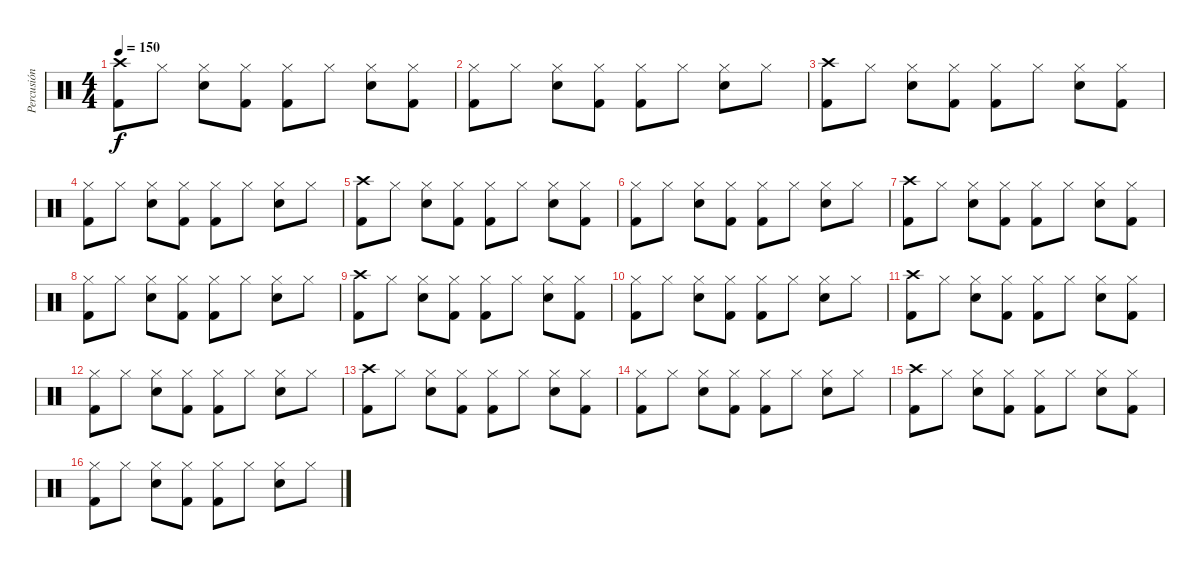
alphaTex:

\track ("Percusión" "Percusión") {instrument percussion}
\staff {score}
\articulation defaults
\ts (4 4)
\tempo 150
\clef neutral
\ks c
("Kick (hit) 2" "Crash high (hit)").8{dy f} "Hi-Hat (closed)".8 ("Hi-Hat (closed)" "Electric Snare (hit)").8 ("Kick (hit) 2" "Hi-Hat (closed)").8 ("Kick (hit) 2" "Hi-Hat (closed)").8 "Hi-Hat (closed)".8 ("Hi-Hat (closed)" "Electric Snare (hit)").8 ("Kick (hit) 2" "Hi-Hat (closed)").8 |
("Kick (hit) 2" "Hi-Hat (closed)").8 "Hi-Hat (closed)".8 ("Hi-Hat (closed)" "Electric Snare (hit)").8 ("Kick (hit) 2" "Hi-Hat (closed)").8 ("Kick (hit) 2" "Hi-Hat (closed)").8 "Hi-Hat (closed)".8 ("Hi-Hat (closed)" "Electric Snare (hit)").8 "Hi-Hat (closed)".8 |
("Kick (hit) 2" "Crash high (hit)").8 "Hi-Hat (closed)".8 ("Hi-Hat (closed)" "Electric Snare (hit)").8 ("Kick (hit) 2" "Hi-Hat (closed)").8 ("Kick (hit) 2" "Hi-Hat (closed)").8 "Hi-Hat (closed)".8 ("Hi-Hat (closed)" "Electric Snare (hit)").8 ("Kick (hit) 2" "Hi-Hat (closed)").8 |
("Kick (hit) 2" "Hi-Hat (closed)").8 "Hi-Hat (closed)".8 ("Hi-Hat (closed)" "Electric Snare (hit)").8 ("Kick (hit) 2" "Hi-Hat (closed)").8 ("Kick (hit) 2" "Hi-Hat (closed)").8 "Hi-Hat (closed)".8 ("Hi-Hat (closed)" "Electric Snare (hit)").8 "Hi-Hat (closed)".8 |
("Kick (hit) 2" "Crash high (hit)").8 "Hi-Hat (closed)".8 ("Hi-Hat (closed)" "Electric Snare (hit)").8 ("Kick (hit) 2" "Hi-Hat (closed)").8 ("Kick (hit) 2" "Hi-Hat (closed)").8 "Hi-Hat (closed)".8 ("Hi-Hat (closed)" "Electric Snare (hit)").8 ("Kick (hit) 2" "Hi-Hat (closed)").8 |
("Kick (hit) 2" "Hi-Hat (closed)").8 "Hi-Hat (closed)".8 ("Hi-Hat (closed)" "Electric Snare (hit)").8 ("Kick (hit) 2" "Hi-Hat (closed)").8 ("Kick (hit) 2" "Hi-Hat (closed)").8 "Hi-Hat (closed)".8 ("Hi-Hat (closed)" "Electric Snare (hit)").8 "Hi-Hat (closed)".8 |
("Kick (hit) 2" "Crash high (hit)").8 "Hi-Hat (closed)".8 ("Hi-Hat (closed)" "Electric Snare (hit)").8 ("Kick (hit) 2" "Hi-Hat (closed)").8 ("Kick (hit) 2" "Hi-Hat (closed)").8 "Hi-Hat (closed)".8 ("Hi-Hat (closed)" "Electric Snare (hit)").8 ("Kick (hit) 2" "Hi-Hat (closed)").8 |
("Kick (hit) 2" "Hi-Hat (closed)").8 "Hi-Hat (closed)".8 ("Hi-Hat (closed)" "Electric Snare (hit)").8 ("Kick (hit) 2" "Hi-Hat (closed)").8 ("Kick (hit) 2" "Hi-Hat (closed)").8 "Hi-Hat (closed)".8 ("Hi-Hat (closed)" "Electric Snare (hit)").8 "Hi-Hat (closed)".8 |
("Kick (hit) 2" "Crash high (hit)").8 "Hi-Hat (closed)".8 ("Hi-Hat (closed)" "Electric Snare (hit)").8 ("Kick (hit) 2" "Hi-Hat (closed)").8 ("Kick (hit) 2" "Hi-Hat (closed)").8 "Hi-Hat (closed)".8 ("Hi-Hat (closed)" "Electric Snare (hit)").8 ("Kick (hit) 2" "Hi-Hat (closed)").8 |
("Kick (hit) 2" "Hi-Hat (closed)").8 "Hi-Hat (closed)".8 ("Hi-Hat (closed)" "Electric Snare (hit)").8 ("Kick (hit) 2" "Hi-Hat (closed)").8 ("Kick (hit) 2" "Hi-Hat (closed)").8 "Hi-Hat (closed)".8 ("Hi-Hat (closed)" "Electric Snare (hit)").8 "Hi-Hat (closed)".8 |
("Kick (hit) 2" "Crash high (hit)").8 "Hi-Hat (closed)".8 ("Hi-Hat (closed)" "Electric Snare (hit)").8 ("Kick (hit) 2" "Hi-Hat (closed)").8 ("Kick (hit) 2" "Hi-Hat (closed)").8 "Hi-Hat (closed)".8 ("Hi-Hat (closed)" "Electric Snare (hit)").8 ("Kick (hit) 2" "Hi-Hat (closed)").8 |
("Kick (hit) 2" "Hi-Hat (closed)").8 "Hi-Hat (closed)".8 ("Hi-Hat (closed)" "Electric Snare (hit)").8 ("Kick (hit) 2" "Hi-Hat (closed)").8 ("Kick (hit) 2" "Hi-Hat (closed)").8 "Hi-Hat (closed)".8 ("Hi-Hat (closed)" "Electric Snare (hit)").8 "Hi-Hat (closed)".8 |
("Kick (hit) 2" "Crash high (hit)").8 "Hi-Hat (closed)".8 ("Hi-Hat (closed)" "Electric Snare (hit)").8 ("Kick (hit) 2" "Hi-Hat (closed)").8 ("Kick (hit) 2" "Hi-Hat (closed)").8 "Hi-Hat (closed)".8 ("Hi-Hat (closed)" "Electric Snare (hit)").8 ("Kick (hit) 2" "Hi-Hat (closed)").8 |
("Kick (hit) 2" "Hi-Hat (closed)").8 "Hi-Hat (closed)".8 ("Hi-Hat (closed)" "Electric Snare (hit)").8 ("Kick (hit) 2" "Hi-Hat (closed)").8 ("Kick (hit) 2" "Hi-Hat (closed)").8 "Hi-Hat (closed)".8 ("Hi-Hat (closed)" "Electric Snare (hit)").8 "Hi-Hat (closed)".8 |
("Kick (hit) 2" "Crash high (hit)").8 "Hi-Hat (closed)".8 ("Hi-Hat (closed)" "Electric Snare (hit)").8 ("Kick (hit) 2" "Hi-Hat (closed)").8 ("Kick (hit) 2" "Hi-Hat (closed)").8 "Hi-Hat (closed)".8 ("Hi-Hat (closed)" "Electric Snare (hit)").8 ("Kick (hit) 2" "Hi-Hat (closed)").8 |
("Kick (hit) 2" "Hi-Hat (closed)").8 "Hi-Hat (closed)".8 ("Hi-Hat (closed)" "Electric Snare (hit)").8 ("Kick (hit) 2" "Hi-Hat (closed)").8 ("Kick (hit) 2" "Hi-Hat (closed)").8 "Hi-Hat (closed)".8 ("Hi-Hat (closed)" "Electric Snare (hit)").8 "Hi-Hat (closed)".8
